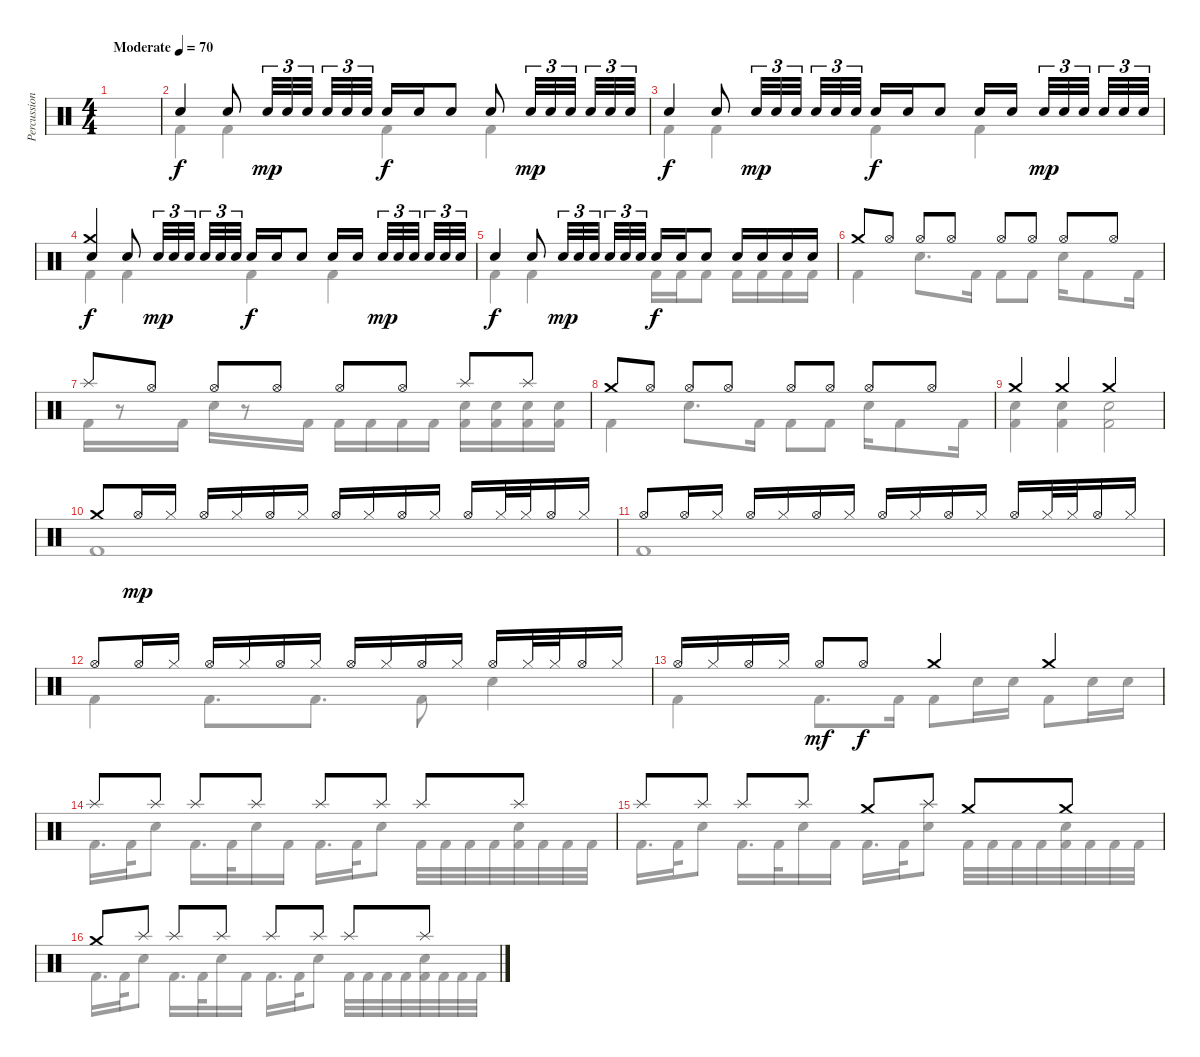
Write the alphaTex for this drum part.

\track ("Percussion" "Percussion") {instrument percussion}
\staff {score}
\articulation defaults
\voice
\ts (4 4)
\tempo (70 "Moderate")
\clef neutral
\ks c
|
"Snare (hit) 2".4 "Snare (hit) 2".8 "Snare (hit) 2".32{tu (3 2) dy mp} "Snare (hit) 2".32{tu (3 2)} "Snare (hit) 2".32{tu (3 2) beam splitsecondary} "Snare (hit) 2".32{tu (3 2)} "Snare (hit) 2".32{tu (3 2)} "Snare (hit) 2".32{tu (3 2)} "Snare (hit) 2".16{dy f} "Snare (hit) 2".16 "Snare (hit) 2".8 "Snare (hit) 2".8 "Snare (hit) 2".32{tu (3 2) dy mp} "Snare (hit) 2".32{tu (3 2)} "Snare (hit) 2".32{tu (3 2) beam splitsecondary} "Snare (hit) 2".32{tu (3 2)} "Snare (hit) 2".32{tu (3 2)} "Snare (hit) 2".32{tu (3 2)} |
"Snare (hit) 2".4{dy f} "Snare (hit) 2".8 "Snare (hit) 2".32{tu (3 2) dy mp} "Snare (hit) 2".32{tu (3 2)} "Snare (hit) 2".32{tu (3 2) beam splitsecondary} "Snare (hit) 2".32{tu (3 2)} "Snare (hit) 2".32{tu (3 2)} "Snare (hit) 2".32{tu (3 2)} "Snare (hit) 2".16{dy f} "Snare (hit) 2".16 "Snare (hit) 2".8 "Snare (hit) 2".16 "Snare (hit) 2".16{beam splitsecondary} "Snare (hit) 2".32{tu (3 2) dy mp} "Snare (hit) 2".32{tu (3 2)} "Snare (hit) 2".32{tu (3 2) beam splitsecondary} "Snare (hit) 2".32{tu (3 2)} "Snare (hit) 2".32{tu (3 2)} "Snare (hit) 2".32{tu (3 2)} |
("Crash medium (hit)" "Snare (hit) 2").4{dy f} "Snare (hit) 2".8 "Snare (hit) 2".32{tu (3 2) dy mp} "Snare (hit) 2".32{tu (3 2)} "Snare (hit) 2".32{tu (3 2) beam splitsecondary} "Snare (hit) 2".32{tu (3 2)} "Snare (hit) 2".32{tu (3 2)} "Snare (hit) 2".32{tu (3 2)} "Snare (hit) 2".16{dy f} "Snare (hit) 2".16 "Snare (hit) 2".8 "Snare (hit) 2".16 "Snare (hit) 2".16{beam splitsecondary} "Snare (hit) 2".32{tu (3 2) dy mp} "Snare (hit) 2".32{tu (3 2)} "Snare (hit) 2".32{tu (3 2) beam splitsecondary} "Snare (hit) 2".32{tu (3 2)} "Snare (hit) 2".32{tu (3 2)} "Snare (hit) 2".32{tu (3 2)} |
"Snare (hit) 2".4{dy f} "Snare (hit) 2".8 "Snare (hit) 2".32{tu (3 2) dy mp} "Snare (hit) 2".32{tu (3 2)} "Snare (hit) 2".32{tu (3 2) beam splitsecondary} "Snare (hit) 2".32{tu (3 2)} "Snare (hit) 2".32{tu (3 2)} "Snare (hit) 2".32{tu (3 2)} "Snare (hit) 2".16{dy f} "Snare (hit) 2".16 "Snare (hit) 2".8 "Snare (hit) 2".16 "Snare (hit) 2".16 "Snare (hit) 2".16 "Snare (hit) 2".16 |
"Crash medium (hit)".8 "Hi-Hat (open)".8 "Hi-Hat (open)".8 "Hi-Hat (open)".8 "Hi-Hat (open)".8 "Hi-Hat (open)".8 "Hi-Hat (open)".8 "Hi-Hat (open)".8 |
"Splash (hit)".8 "Hi-Hat (open)".8 "Hi-Hat (open)".8 "Hi-Hat (open)".8 "Hi-Hat (open)".8 "Hi-Hat (open)".8 "Splash (hit)".8 "Splash (hit)".8 |
"Crash medium (hit)".8 "Hi-Hat (open)".8 "Hi-Hat (open)".8 "Hi-Hat (open)".8 "Hi-Hat (open)".8 "Hi-Hat (open)".8 "Hi-Hat (open)".8 "Hi-Hat (open)".8 |
"Crash medium (hit)".4 "Crash medium (hit)".4 "Crash medium (hit)".2 |
"Crash medium (hit)".8 "Hi-Hat (open)".16{dy mp} "Hi-Hat (closed)".16 "Hi-Hat (open)".16 "Hi-Hat (closed)".16 "Hi-Hat (open)".16 "Hi-Hat (closed)".16 "Hi-Hat (open)".16 "Hi-Hat (closed)".16 "Hi-Hat (open)".16 "Hi-Hat (closed)".16 "Hi-Hat (open)".16 "Hi-Hat (closed)".32 "Hi-Hat (closed)".32 "Hi-Hat (open)".16 "Hi-Hat (closed)".16 |
"Hi-Hat (open)".8 "Hi-Hat (open)".16 "Hi-Hat (closed)".16 "Hi-Hat (open)".16 "Hi-Hat (closed)".16 "Hi-Hat (open)".16 "Hi-Hat (closed)".16 "Hi-Hat (open)".16 "Hi-Hat (closed)".16 "Hi-Hat (open)".16 "Hi-Hat (closed)".16 "Hi-Hat (open)".16 "Hi-Hat (closed)".32 "Hi-Hat (closed)".32 "Hi-Hat (open)".16 "Hi-Hat (closed)".16 |
"Hi-Hat (open)".8 "Hi-Hat (open)".16 "Hi-Hat (closed)".16 "Hi-Hat (open)".16 "Hi-Hat (closed)".16 "Hi-Hat (open)".16 "Hi-Hat (closed)".16 "Hi-Hat (open)".16 "Hi-Hat (closed)".16 "Hi-Hat (open)".16 "Hi-Hat (closed)".16 "Hi-Hat (open)".16 "Hi-Hat (closed)".32 "Hi-Hat (closed)".32 "Hi-Hat (open)".16 "Hi-Hat (closed)".16 |
"Hi-Hat (open)".16 "Hi-Hat (closed)".16 "Hi-Hat (open)".16 "Hi-Hat (closed)".16 "Hi-Hat (open)".8{dy mf} "Hi-Hat (open)".8{dy f} "Crash medium (hit)".4 "Crash medium (hit)".4 |
"Splash (hit)".8 "Splash (hit)".8 "Splash (hit)".8 "Splash (hit)".8 "Splash (hit)".8 "Splash (hit)".8 "Splash (hit)".8 "Splash (hit)".8 |
"Splash (hit)".8 "Splash (hit)".8 "Splash (hit)".8 "Splash (hit)".8 "Crash medium (hit)".8 "Splash (hit)".8 "Crash medium (hit)".8 "Crash medium (hit)".8 |
"Crash medium (hit)".8 "Splash (hit)".8 "Splash (hit)".8 "Splash (hit)".8 "Splash (hit)".8 "Splash (hit)".8 "Splash (hit)".8 "Splash (hit)".8
\voice
\clef neutral
\ottava regular
\simile none
\ks c
|
"Kick (hit) 2".4 "Kick (hit) 2".4 "Kick (hit) 2".4 "Kick (hit) 2".4 |
"Kick (hit) 2".4 "Kick (hit) 2".4 "Kick (hit) 2".4 "Kick (hit) 2".4 |
"Kick (hit) 2".4 "Kick (hit) 2".4 "Kick (hit) 2".4 "Kick (hit) 2".4 |
"Kick (hit) 2".4 "Kick (hit) 2".4 "Kick (hit) 2".16 "Kick (hit) 2".16 "Kick (hit) 2".8 "Kick (hit) 2".16 "Kick (hit) 2".16 "Kick (hit) 2".16 "Kick (hit) 2".16 |
"Kick (hit) 2".4 "Snare (hit) 2".8{d} "Kick (hit) 2".16 "Kick (hit) 2".8 "Kick (hit) 2".8 "Snare (hit) 2".16 "Kick (hit) 2".8 "Kick (hit) 2".16 |
"Kick (hit) 2".16 r.8 "Kick (hit) 2".16 "Snare (hit) 2".16 r.8 "Kick (hit) 2".16 "Kick (hit) 2".16 "Kick (hit) 2".16 "Kick (hit) 2".16 "Kick (hit) 2".16 ("Snare (hit) 2" "Kick (hit) 2").16 ("Snare (hit) 2" "Kick (hit) 2").16 ("Snare (hit) 2" "Kick (hit) 2").16 ("Snare (hit) 2" "Kick (hit) 2").16 |
"Kick (hit) 2".4 "Snare (hit) 2".8{d} "Kick (hit) 2".16 "Kick (hit) 2".8 "Kick (hit) 2".8 "Snare (hit) 2".16 "Kick (hit) 2".8 "Kick (hit) 2".16 |
("Snare (hit) 2" "Kick (hit) 2").4 ("Snare (hit) 2" "Kick (hit) 2").4 ("Snare (hit) 2" "Kick (hit) 2").2 |
"Kick (hit) 2".1 |
"Kick (hit) 2".1 |
"Kick (hit) 2".4 "Kick (hit) 2".8{d} "Kick (hit) 2".8{d} "Kick (hit) 2".8 "Snare (hit) 2".4 |
"Kick (hit) 2".4 "Kick (hit) 2".8{d} "Kick (hit) 2".16 "Kick (hit) 2".8 "Snare (hit) 2".16 "Snare (hit) 2".16 "Kick (hit) 2".8 "Snare (hit) 2".16 "Snare (hit) 2".16 |
"Kick (hit) 2".16{d} "Kick (hit) 2".32 "Snare (hit) 2".8 "Kick (hit) 2".16{d} "Kick (hit) 2".32 "Snare (hit) 2".16 "Kick (hit) 2".16 "Kick (hit) 2".16{d} "Kick (hit) 2".32 "Snare (hit) 2".8 "Kick (hit) 2".32 "Kick (hit) 2".32 "Kick (hit) 2".32 "Kick (hit) 2".32 ("Snare (hit) 2" "Kick (hit) 2").32 "Kick (hit) 2".32 "Kick (hit) 2".32 "Kick (hit) 2".32 |
"Kick (hit) 2".16{d} "Kick (hit) 2".32 "Snare (hit) 2".8 "Kick (hit) 2".16{d} "Kick (hit) 2".32 "Snare (hit) 2".16 "Kick (hit) 2".16 "Kick (hit) 2".16{d} "Kick (hit) 2".32 ("Splash (hit)" "Snare (hit) 2").8 "Kick (hit) 2".32 "Kick (hit) 2".32 "Kick (hit) 2".32 "Kick (hit) 2".32 ("Snare (hit) 2" "Kick (hit) 2").32 "Kick (hit) 2".32 "Kick (hit) 2".32 "Kick (hit) 2".32 |
"Kick (hit) 2".16{d} "Kick (hit) 2".32 "Snare (hit) 2".8 "Kick (hit) 2".16{d} "Kick (hit) 2".32 "Snare (hit) 2".16 "Kick (hit) 2".16 "Kick (hit) 2".16{d} "Kick (hit) 2".32 "Snare (hit) 2".8 "Kick (hit) 2".32 "Kick (hit) 2".32 "Kick (hit) 2".32 "Kick (hit) 2".32 ("Snare (hit) 2" "Kick (hit) 2").32 "Kick (hit) 2".32 "Kick (hit) 2".32 "Kick (hit) 2".32
